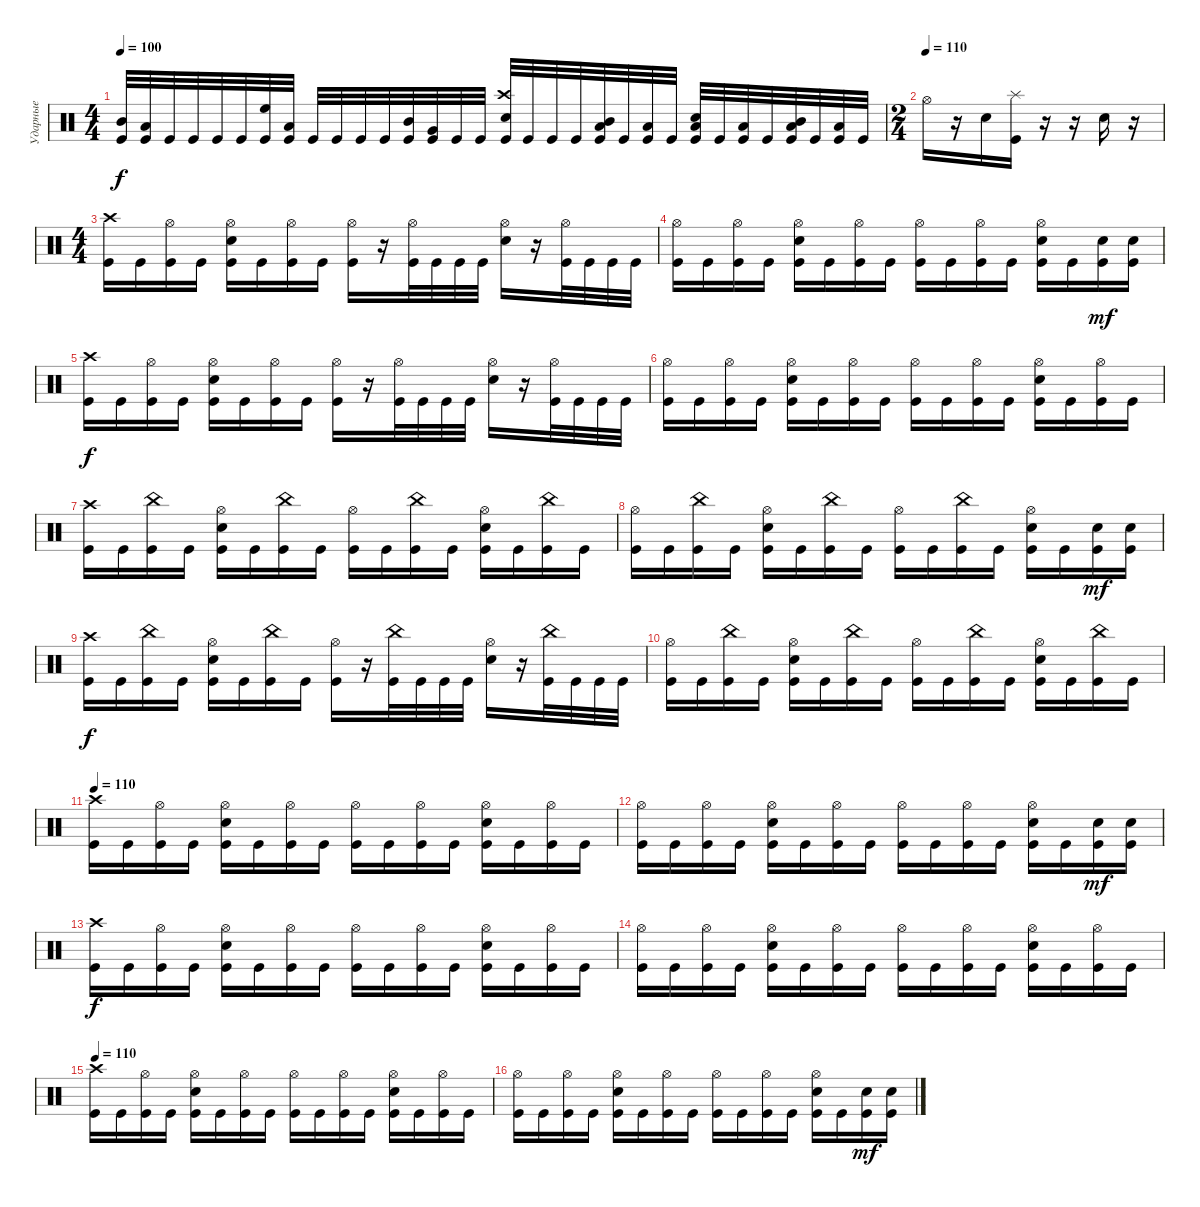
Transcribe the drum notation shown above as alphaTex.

\track ("Ударные" "Ударные") {instrument percussion}
\staff {score}
\articulation defaults
\ts (4 4)
\tempo 100
\clef neutral
\ks c
("Mid Tom (hit)" "Kick (hit)").32{dy f} ("Low Tom (hit)" "Kick (hit)").32 "Kick (hit)".32 "Kick (hit)".32 "Kick (hit)".32 "Kick (hit)".32 ("High Floor Tom (hit)" "Kick (hit)").32 ("Low Tom (hit)" "Kick (hit)").32 "Kick (hit)".32 "Kick (hit)".32 "Kick (hit)".32 "Kick (hit)".32 ("Mid Tom (hit)" "Kick (hit)").32 ("Very Low Tom (hit)" "Kick (hit)").32 "Kick (hit)".32 "Kick (hit)".32 ("Crash high (hit)" "Snare (hit) 2" "Kick (hit)").32 "Kick (hit)".32 "Kick (hit)".32 "Kick (hit)".32 ("Low Floor Tom (hit)" "Mid Tom (hit)" "Kick (hit)").32 "Kick (hit)".32 ("Low Floor Tom (hit)" "Kick (hit)").32 "Kick (hit)".32 ("Low Floor Tom (hit)" "Snare (hit) 2" "Kick (hit)").32 "Kick (hit)".32 ("Low Floor Tom (hit)" "Kick (hit)").32 "Kick (hit)".32 ("Low Floor Tom (hit)" "Mid Tom (hit)" "Kick (hit)").32 "Kick (hit)".32 ("Low Floor Tom (hit)" "Kick (hit)").32 "Kick (hit)".32 |
\ts (2 4)
\tempo (110)
"Hi-Hat (open)".16 r.16 "Snare (hit) 2".16 ("Splash (hit)" "Kick (hit)").16 r.16 r.16 "Snare (hit) 2".16 r.16 |
\ts (4 4)
("Crash high (hit)" "Kick (hit)").16 "Kick (hit)".16 ("Hi-Hat (open)" "Kick (hit)").16 "Kick (hit)".16 ("Hi-Hat (open)" "Snare (hit) 2" "Kick (hit)").16 "Kick (hit)".16 ("Hi-Hat (open)" "Kick (hit)").16 "Kick (hit)".16 ("Hi-Hat (open)" "Kick (hit)").16 r.16 ("Hi-Hat (open)" "Kick (hit)").32 "Kick (hit)".32 "Kick (hit)".32 "Kick (hit)".32 ("Hi-Hat (open)" "Snare (hit) 2").16 r.16 ("Hi-Hat (open)" "Kick (hit)").32 "Kick (hit)".32 "Kick (hit)".32 "Kick (hit)".32 |
("Hi-Hat (open)" "Kick (hit)").16 "Kick (hit)".16 ("Hi-Hat (open)" "Kick (hit)").16 "Kick (hit)".16 ("Hi-Hat (open)" "Snare (hit) 2" "Kick (hit)").16 "Kick (hit)".16 ("Hi-Hat (open)" "Kick (hit)").16 "Kick (hit)".16 ("Hi-Hat (open)" "Kick (hit)").16 "Kick (hit)".16 ("Hi-Hat (open)" "Kick (hit)").16 "Kick (hit)".16 ("Hi-Hat (open)" "Snare (hit) 2" "Kick (hit)").16 "Kick (hit)".16 ("Snare (hit) 2" "Kick (hit)").16{dy mf} ("Snare (hit) 2" "Kick (hit)").16 |
("Crash high (hit)" "Kick (hit)").16{dy f} "Kick (hit)".16 ("Hi-Hat (open)" "Kick (hit)").16 "Kick (hit)".16 ("Hi-Hat (open)" "Snare (hit) 2" "Kick (hit)").16 "Kick (hit)".16 ("Hi-Hat (open)" "Kick (hit)").16 "Kick (hit)".16 ("Hi-Hat (open)" "Kick (hit)").16 r.16 ("Hi-Hat (open)" "Kick (hit)").32 "Kick (hit)".32 "Kick (hit)".32 "Kick (hit)".32 ("Hi-Hat (open)" "Snare (hit) 2").16 r.16 ("Hi-Hat (open)" "Kick (hit)").32 "Kick (hit)".32 "Kick (hit)".32 "Kick (hit)".32 |
("Hi-Hat (open)" "Kick (hit)").16 "Kick (hit)".16 ("Hi-Hat (open)" "Kick (hit)").16 "Kick (hit)".16 ("Hi-Hat (open)" "Snare (hit) 2" "Kick (hit)").16 "Kick (hit)".16 ("Hi-Hat (open)" "Kick (hit)").16 "Kick (hit)".16 ("Hi-Hat (open)" "Kick (hit)").16 "Kick (hit)".16 ("Hi-Hat (open)" "Kick (hit)").16 "Kick (hit)".16 ("Hi-Hat (open)" "Snare (hit) 2" "Kick (hit)").16 "Kick (hit)".16 ("Hi-Hat (open)" "Kick (hit)").16 "Kick (hit)".16 |
("Crash high (hit)" "Kick (hit)").16 "Kick (hit)".16 ("China (hit)" "Kick (hit)").16 "Kick (hit)".16 ("Hi-Hat (open)" "Snare (hit) 2" "Kick (hit)").16 "Kick (hit)".16 ("China (hit)" "Kick (hit)").16 "Kick (hit)".16 ("Hi-Hat (open)" "Kick (hit)").16 "Kick (hit)".16 ("China (hit)" "Kick (hit)").16 "Kick (hit)".16 ("Hi-Hat (open)" "Snare (hit) 2" "Kick (hit)").16 "Kick (hit)".16 ("China (hit)" "Kick (hit)").16 "Kick (hit)".16 |
("Hi-Hat (open)" "Kick (hit)").16 "Kick (hit)".16 ("China (hit)" "Kick (hit)").16 "Kick (hit)".16 ("Hi-Hat (open)" "Snare (hit) 2" "Kick (hit)").16 "Kick (hit)".16 ("China (hit)" "Kick (hit)").16 "Kick (hit)".16 ("Hi-Hat (open)" "Kick (hit)").16 "Kick (hit)".16 ("China (hit)" "Kick (hit)").16 "Kick (hit)".16 ("Hi-Hat (open)" "Snare (hit) 2" "Kick (hit)").16 "Kick (hit)".16 ("Snare (hit) 2" "Kick (hit)").16{dy mf} ("Snare (hit) 2" "Kick (hit)").16 |
("Crash high (hit)" "Kick (hit)").16{dy f} "Kick (hit)".16 ("China (hit)" "Kick (hit)").16 "Kick (hit)".16 ("Hi-Hat (open)" "Snare (hit) 2" "Kick (hit)").16 "Kick (hit)".16 ("China (hit)" "Kick (hit)").16 "Kick (hit)".16 ("Hi-Hat (open)" "Kick (hit)").16 r.16 ("China (hit)" "Kick (hit)").32 "Kick (hit)".32 "Kick (hit)".32 "Kick (hit)".32 ("Hi-Hat (open)" "Snare (hit) 2").16 r.16 ("China (hit)" "Kick (hit)").32 "Kick (hit)".32 "Kick (hit)".32 "Kick (hit)".32 |
("Hi-Hat (open)" "Kick (hit)").16 "Kick (hit)".16 ("China (hit)" "Kick (hit)").16 "Kick (hit)".16 ("Hi-Hat (open)" "Snare (hit) 2" "Kick (hit)").16 "Kick (hit)".16 ("China (hit)" "Kick (hit)").16 "Kick (hit)".16 ("Hi-Hat (open)" "Kick (hit)").16 "Kick (hit)".16 ("China (hit)" "Kick (hit)").16 "Kick (hit)".16 ("Hi-Hat (open)" "Snare (hit) 2" "Kick (hit)").16 "Kick (hit)".16 ("China (hit)" "Kick (hit)").16 "Kick (hit)".16 |
\tempo 110
("Crash high (hit)" "Kick (hit)").16 "Kick (hit)".16 ("Hi-Hat (open)" "Kick (hit)").16 "Kick (hit)".16 ("Hi-Hat (open)" "Snare (hit) 2" "Kick (hit)").16 "Kick (hit)".16 ("Hi-Hat (open)" "Kick (hit)").16 "Kick (hit)".16 ("Hi-Hat (open)" "Kick (hit)").16 "Kick (hit)".16 ("Hi-Hat (open)" "Kick (hit)").16 "Kick (hit)".16 ("Hi-Hat (open)" "Snare (hit) 2" "Kick (hit)").16 "Kick (hit)".16 ("Hi-Hat (open)" "Kick (hit)").16 "Kick (hit)".16 |
("Hi-Hat (open)" "Kick (hit)").16 "Kick (hit)".16 ("Hi-Hat (open)" "Kick (hit)").16 "Kick (hit)".16 ("Hi-Hat (open)" "Snare (hit) 2" "Kick (hit)").16 "Kick (hit)".16 ("Hi-Hat (open)" "Kick (hit)").16 "Kick (hit)".16 ("Hi-Hat (open)" "Kick (hit)").16 "Kick (hit)".16 ("Hi-Hat (open)" "Kick (hit)").16 "Kick (hit)".16 ("Hi-Hat (open)" "Snare (hit) 2" "Kick (hit)").16 "Kick (hit)".16 ("Snare (hit) 2" "Kick (hit)").16{dy mf} ("Snare (hit) 2" "Kick (hit)").16 |
("Crash high (hit)" "Kick (hit)").16{dy f} "Kick (hit)".16 ("Hi-Hat (open)" "Kick (hit)").16 "Kick (hit)".16 ("Hi-Hat (open)" "Snare (hit) 2" "Kick (hit)").16 "Kick (hit)".16 ("Hi-Hat (open)" "Kick (hit)").16 "Kick (hit)".16 ("Hi-Hat (open)" "Kick (hit)").16 "Kick (hit)".16 ("Hi-Hat (open)" "Kick (hit)").16 "Kick (hit)".16 ("Hi-Hat (open)" "Snare (hit) 2" "Kick (hit)").16 "Kick (hit)".16 ("Hi-Hat (open)" "Kick (hit)").16 "Kick (hit)".16 |
("Hi-Hat (open)" "Kick (hit)").16 "Kick (hit)".16 ("Hi-Hat (open)" "Kick (hit)").16 "Kick (hit)".16 ("Hi-Hat (open)" "Snare (hit) 2" "Kick (hit)").16 "Kick (hit)".16 ("Hi-Hat (open)" "Kick (hit)").16 "Kick (hit)".16 ("Hi-Hat (open)" "Kick (hit)").16 "Kick (hit)".16 ("Hi-Hat (open)" "Kick (hit)").16 "Kick (hit)".16 ("Hi-Hat (open)" "Snare (hit) 2" "Kick (hit)").16 "Kick (hit)".16 ("Hi-Hat (open)" "Kick (hit)").16 "Kick (hit)".16 |
\tempo 110
("Crash high (hit)" "Kick (hit)").16 "Kick (hit)".16 ("Hi-Hat (open)" "Kick (hit)").16 "Kick (hit)".16 ("Hi-Hat (open)" "Snare (hit) 2" "Kick (hit)").16 "Kick (hit)".16 ("Hi-Hat (open)" "Kick (hit)").16 "Kick (hit)".16 ("Hi-Hat (open)" "Kick (hit)").16 "Kick (hit)".16 ("Hi-Hat (open)" "Kick (hit)").16 "Kick (hit)".16 ("Hi-Hat (open)" "Snare (hit) 2" "Kick (hit)").16 "Kick (hit)".16 ("Hi-Hat (open)" "Kick (hit)").16 "Kick (hit)".16 |
("Hi-Hat (open)" "Kick (hit)").16 "Kick (hit)".16 ("Hi-Hat (open)" "Kick (hit)").16 "Kick (hit)".16 ("Hi-Hat (open)" "Snare (hit) 2" "Kick (hit)").16 "Kick (hit)".16 ("Hi-Hat (open)" "Kick (hit)").16 "Kick (hit)".16 ("Hi-Hat (open)" "Kick (hit)").16 "Kick (hit)".16 ("Hi-Hat (open)" "Kick (hit)").16 "Kick (hit)".16 ("Hi-Hat (open)" "Snare (hit) 2" "Kick (hit)").16 "Kick (hit)".16 ("Snare (hit) 2" "Kick (hit)").16{dy mf} ("Snare (hit) 2" "Kick (hit)").16
